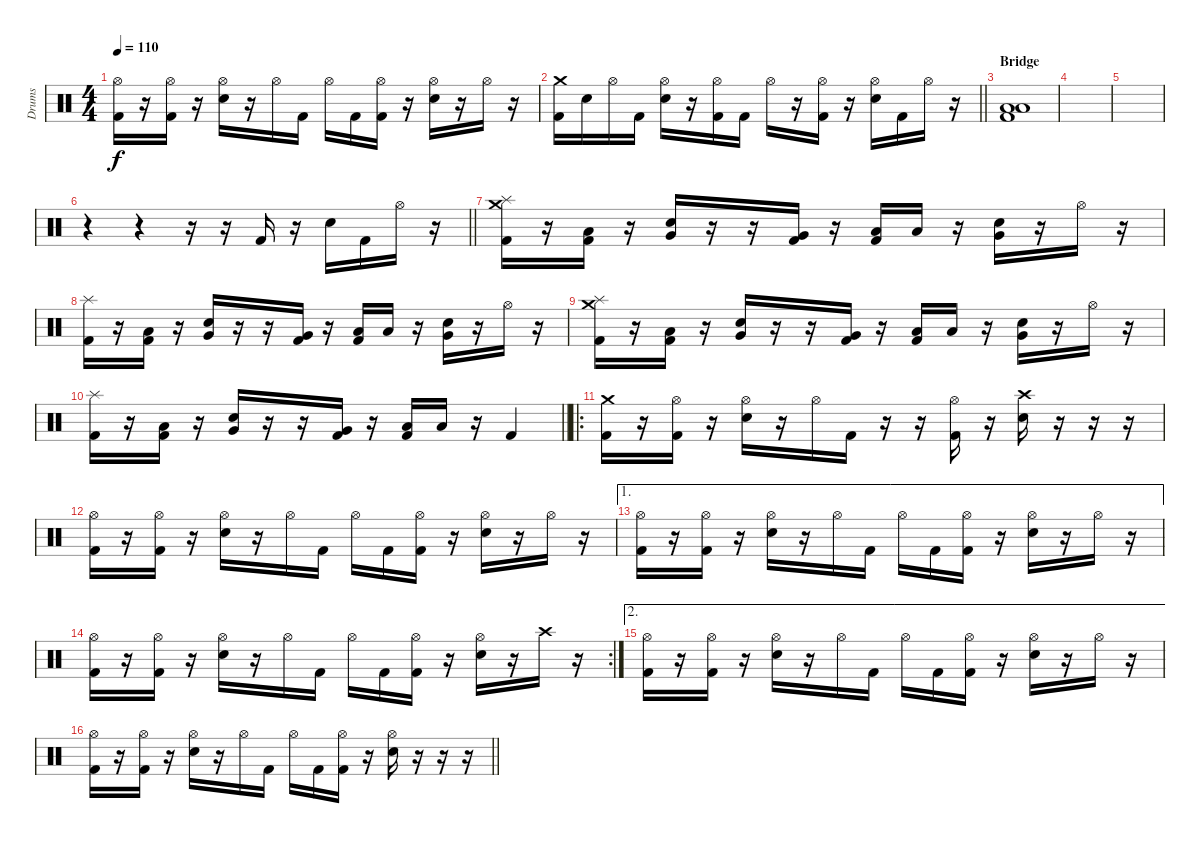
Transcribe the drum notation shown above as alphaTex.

\track ("Drums" "Drums") {instrument percussion}
\staff {score}
\articulation defaults
\ts (4 4)
\tempo 110
\clef neutral
\ks c
("Hi-Hat (open)" "Kick (hit) 2").16{dy f} r.16 ("Hi-Hat (open)" "Kick (hit) 2").16 r.16 ("Hi-Hat (open)" "Electric Snare (hit)").16 r.16 "Hi-Hat (open)".16 "Kick (hit) 2".16 "Hi-Hat (open)".16 "Kick (hit) 2".16 ("Hi-Hat (open)" "Kick (hit) 2").16 r.16 ("Hi-Hat (open)" "Electric Snare (hit)").16 r.16 "Hi-Hat (open)".16 r.16 |
\barLineRight lightlight
("Crash medium (hit)" "Kick (hit) 2").16 "Electric Snare (hit)".16 "Hi-Hat (open)".16 "Kick (hit) 2".16 ("Hi-Hat (open)" "Electric Snare (hit)").16 r.16 ("Hi-Hat (open)" "Kick (hit) 2").16 "Kick (hit) 2".16 "Hi-Hat (open)".16 r.16 ("Hi-Hat (open)" "Kick (hit) 2").16 r.16 ("Hi-Hat (open)" "Electric Snare (hit)").16 "Kick (hit) 2".16 "Hi-Hat (open)".16 r.16 |
\section ("" "Bridge")
("Low Tom (hit)" "Low Floor Tom (hit)" "Kick (hit) 2").1 |
|
|
\barLineRight lightlight
r.4 r.4 r.16 r.16 "Kick (hit) 2".16 r.16 "Electric Snare (hit)".16 "Kick (hit) 2".16 "Hi-Hat (open)".16 r.16 |
("Crash medium (hit)" "Splash (hit)" "Kick (hit) 2").16 r.16 ("Low Floor Tom (hit)" "Kick (hit) 2").16 r.16 ("Electric Snare (hit)" "Very Low Tom (hit)").16 r.16 r.16 ("Very Low Tom (hit)" "Kick (hit) 2").16 r.16 ("Low Tom (hit)" "Kick (hit) 2").16 "Low Floor Tom (hit)".16 r.16 ("Electric Snare (hit)" "Very Low Tom (hit)").16 r.16 "Hi-Hat (open)".16 r.16 |
("Splash (hit)" "Kick (hit) 2").16 r.16 ("Low Floor Tom (hit)" "Kick (hit) 2").16 r.16 ("Electric Snare (hit)" "Very Low Tom (hit)").16 r.16 r.16 ("Very Low Tom (hit)" "Kick (hit) 2").16 r.16 ("Low Tom (hit)" "Kick (hit) 2").16 "Low Floor Tom (hit)".16 r.16 ("Electric Snare (hit)" "Very Low Tom (hit)").16 r.16 "Hi-Hat (open)".16 r.16 |
("Crash medium (hit)" "Splash (hit)" "Kick (hit) 2").16 r.16 ("Low Floor Tom (hit)" "Kick (hit) 2").16 r.16 ("Electric Snare (hit)" "Very Low Tom (hit)").16 r.16 r.16 ("Very Low Tom (hit)" "Kick (hit) 2").16 r.16 ("Low Tom (hit)" "Kick (hit) 2").16 "Low Floor Tom (hit)".16 r.16 ("Electric Snare (hit)" "Very Low Tom (hit)").16 r.16 "Hi-Hat (open)".16 r.16 |
\barLineRight lightlight
("Splash (hit)" "Kick (hit) 2").16 r.16 ("Low Floor Tom (hit)" "Kick (hit) 2").16 r.16 ("Electric Snare (hit)" "Very Low Tom (hit)").16 r.16 r.16 ("Very Low Tom (hit)" "Kick (hit) 2").16 r.16 ("Low Tom (hit)" "Kick (hit) 2").16 "Low Floor Tom (hit)".16 r.16 "Kick (hit) 2".4 |
\ro
("Crash medium (hit)" "Kick (hit) 2").16 r.16 ("Hi-Hat (open)" "Kick (hit) 2").16 r.16 ("Hi-Hat (open)" "Electric Snare (hit)").16 r.16 "Hi-Hat (open)".16 "Kick (hit) 2".16 r.16 r.16 ("Hi-Hat (open)" "Kick (hit) 2").16 r.16 ("Crash high (hit)" "Electric Snare (hit)").16 r.16 r.16 r.16 |
("Hi-Hat (open)" "Kick (hit) 2").16 r.16 ("Hi-Hat (open)" "Kick (hit) 2").16 r.16 ("Hi-Hat (open)" "Electric Snare (hit)").16 r.16 "Hi-Hat (open)".16 "Kick (hit) 2".16 "Hi-Hat (open)".16 "Kick (hit) 2".16 ("Hi-Hat (open)" "Kick (hit) 2").16 r.16 ("Hi-Hat (open)" "Electric Snare (hit)").16 r.16 "Hi-Hat (open)".16 r.16 |
\ae 1
("Hi-Hat (open)" "Kick (hit) 2").16 r.16 ("Hi-Hat (open)" "Kick (hit) 2").16 r.16 ("Hi-Hat (open)" "Electric Snare (hit)").16 r.16 "Hi-Hat (open)".16 "Kick (hit) 2".16 "Hi-Hat (open)".16 "Kick (hit) 2".16 ("Hi-Hat (open)" "Kick (hit) 2").16 r.16 ("Hi-Hat (open)" "Electric Snare (hit)").16 r.16 "Hi-Hat (open)".16 r.16 |
\rc 2
("Hi-Hat (open)" "Kick (hit) 2").16 r.16 ("Hi-Hat (open)" "Kick (hit) 2").16 r.16 ("Hi-Hat (open)" "Electric Snare (hit)").16 r.16 "Hi-Hat (open)".16 "Kick (hit) 2".16 "Hi-Hat (open)".16 "Kick (hit) 2".16 ("Hi-Hat (open)" "Kick (hit) 2").16 r.16 ("Hi-Hat (open)" "Electric Snare (hit)").16 r.16 "Crash high (hit)".16 r.16 |
\ae 2
("Hi-Hat (open)" "Kick (hit) 2").16 r.16 ("Hi-Hat (open)" "Kick (hit) 2").16 r.16 ("Hi-Hat (open)" "Electric Snare (hit)").16 r.16 "Hi-Hat (open)".16 "Kick (hit) 2".16 "Hi-Hat (open)".16 "Kick (hit) 2".16 ("Hi-Hat (open)" "Kick (hit) 2").16 r.16 ("Hi-Hat (open)" "Electric Snare (hit)").16 r.16 "Hi-Hat (open)".16 r.16 |
\barLineRight lightlight
("Hi-Hat (open)" "Kick (hit) 2").16 r.16 ("Hi-Hat (open)" "Kick (hit) 2").16 r.16 ("Hi-Hat (open)" "Electric Snare (hit)").16 r.16 "Hi-Hat (open)".16 "Kick (hit) 2".16 "Hi-Hat (open)".16 "Kick (hit) 2".16 ("Hi-Hat (open)" "Kick (hit) 2").16 r.16 ("Hi-Hat (open)" "Electric Snare (hit)").16 r.16 r.16 r.16
